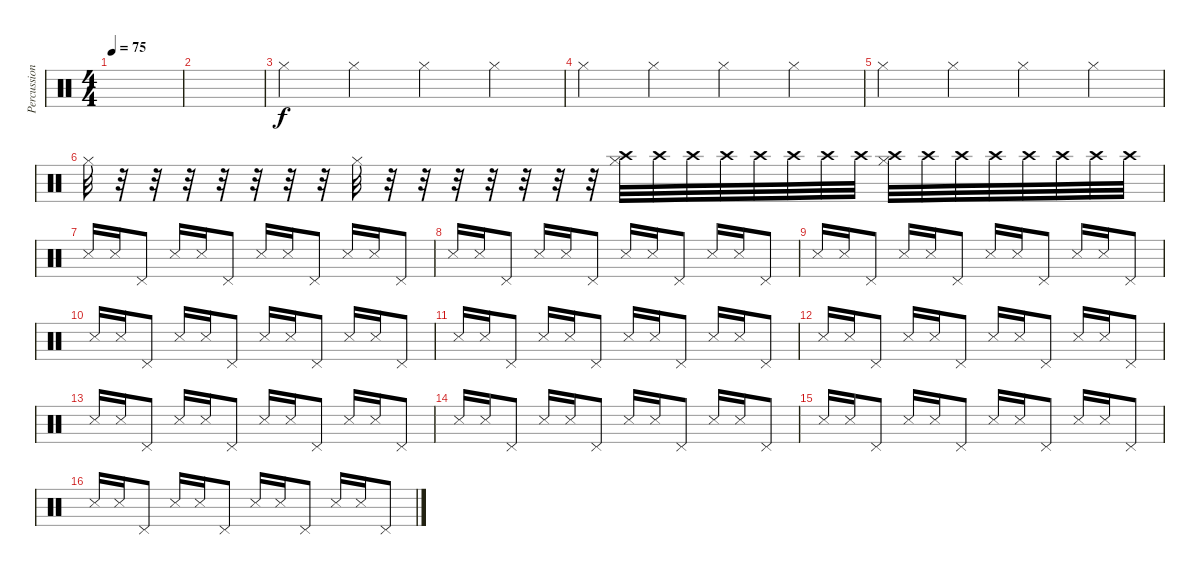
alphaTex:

\track ("Percussions" "Percussion") {instrument percussion}
\staff {score}
\articulation defaults
\ts (4 4)
\tempo 75
\clef neutral
\ks c
|
|
"Hi-Hat (closed)".4 "Hi-Hat (closed)".4 "Hi-Hat (closed)".4 "Hi-Hat (closed)".4 |
"Hi-Hat (closed)".4 "Hi-Hat (closed)".4 "Hi-Hat (closed)".4 "Hi-Hat (closed)".4 |
"Hi-Hat (closed)".4 "Hi-Hat (closed)".4 "Hi-Hat (closed)".4 "Hi-Hat (closed)".4 |
"Hi-Hat (closed)".32 r.32 r.32 r.32 r.32 r.32 r.32 r.32 "Hi-Hat (closed)".32 r.32 r.32 r.32 r.32 r.32 r.32 r.32 ("Crash high (hit)" "Hi-Hat (closed)").32 "Crash high (hit)".32 "Crash high (hit)".32 "Crash high (hit)".32 "Crash high (hit)".32 "Crash high (hit)".32 "Crash high (hit)".32 "Crash high (hit)".32 ("Crash high (hit)" "Hi-Hat (closed)").32 "Crash high (hit)".32 "Crash high (hit)".32 "Crash high (hit)".32 "Crash high (hit)".32 "Crash high (hit)".32 "Crash high (hit)".32 "Crash high (hit)".32 |
"Snare (side stick) 3".16 "Snare (side stick) 3".16 "Pedal Hi-Hat (hit)".8 "Snare (side stick) 3".16 "Snare (side stick) 3".16 "Pedal Hi-Hat (hit)".8 "Snare (side stick) 3".16 "Snare (side stick) 3".16 "Pedal Hi-Hat (hit)".8 "Snare (side stick) 3".16 "Snare (side stick) 3".16 "Pedal Hi-Hat (hit)".8 |
"Snare (side stick) 3".16 "Snare (side stick) 3".16 "Pedal Hi-Hat (hit)".8 "Snare (side stick) 3".16 "Snare (side stick) 3".16 "Pedal Hi-Hat (hit)".8 "Snare (side stick) 3".16 "Snare (side stick) 3".16 "Pedal Hi-Hat (hit)".8 "Snare (side stick) 3".16 "Snare (side stick) 3".16 "Pedal Hi-Hat (hit)".8 |
"Snare (side stick) 3".16 "Snare (side stick) 3".16 "Pedal Hi-Hat (hit)".8 "Snare (side stick) 3".16 "Snare (side stick) 3".16 "Pedal Hi-Hat (hit)".8 "Snare (side stick) 3".16 "Snare (side stick) 3".16 "Pedal Hi-Hat (hit)".8 "Snare (side stick) 3".16 "Snare (side stick) 3".16 "Pedal Hi-Hat (hit)".8 |
"Snare (side stick) 3".16 "Snare (side stick) 3".16 "Pedal Hi-Hat (hit)".8 "Snare (side stick) 3".16 "Snare (side stick) 3".16 "Pedal Hi-Hat (hit)".8 "Snare (side stick) 3".16 "Snare (side stick) 3".16 "Pedal Hi-Hat (hit)".8 "Snare (side stick) 3".16 "Snare (side stick) 3".16 "Pedal Hi-Hat (hit)".8 |
"Snare (side stick) 3".16 "Snare (side stick) 3".16 "Pedal Hi-Hat (hit)".8 "Snare (side stick) 3".16 "Snare (side stick) 3".16 "Pedal Hi-Hat (hit)".8 "Snare (side stick) 3".16 "Snare (side stick) 3".16 "Pedal Hi-Hat (hit)".8 "Snare (side stick) 3".16 "Snare (side stick) 3".16 "Pedal Hi-Hat (hit)".8 |
"Snare (side stick) 3".16 "Snare (side stick) 3".16 "Pedal Hi-Hat (hit)".8 "Snare (side stick) 3".16 "Snare (side stick) 3".16 "Pedal Hi-Hat (hit)".8 "Snare (side stick) 3".16 "Snare (side stick) 3".16 "Pedal Hi-Hat (hit)".8 "Snare (side stick) 3".16 "Snare (side stick) 3".16 "Pedal Hi-Hat (hit)".8 |
"Snare (side stick) 3".16 "Snare (side stick) 3".16 "Pedal Hi-Hat (hit)".8 "Snare (side stick) 3".16 "Snare (side stick) 3".16 "Pedal Hi-Hat (hit)".8 "Snare (side stick) 3".16 "Snare (side stick) 3".16 "Pedal Hi-Hat (hit)".8 "Snare (side stick) 3".16 "Snare (side stick) 3".16 "Pedal Hi-Hat (hit)".8 |
"Snare (side stick) 3".16 "Snare (side stick) 3".16 "Pedal Hi-Hat (hit)".8 "Snare (side stick) 3".16 "Snare (side stick) 3".16 "Pedal Hi-Hat (hit)".8 "Snare (side stick) 3".16 "Snare (side stick) 3".16 "Pedal Hi-Hat (hit)".8 "Snare (side stick) 3".16 "Snare (side stick) 3".16 "Pedal Hi-Hat (hit)".8 |
"Snare (side stick) 3".16 "Snare (side stick) 3".16 "Pedal Hi-Hat (hit)".8 "Snare (side stick) 3".16 "Snare (side stick) 3".16 "Pedal Hi-Hat (hit)".8 "Snare (side stick) 3".16 "Snare (side stick) 3".16 "Pedal Hi-Hat (hit)".8 "Snare (side stick) 3".16 "Snare (side stick) 3".16 "Pedal Hi-Hat (hit)".8 |
"Snare (side stick) 3".16 "Snare (side stick) 3".16 "Pedal Hi-Hat (hit)".8 "Snare (side stick) 3".16 "Snare (side stick) 3".16 "Pedal Hi-Hat (hit)".8 "Snare (side stick) 3".16 "Snare (side stick) 3".16 "Pedal Hi-Hat (hit)".8 "Snare (side stick) 3".16 "Snare (side stick) 3".16 "Pedal Hi-Hat (hit)".8
